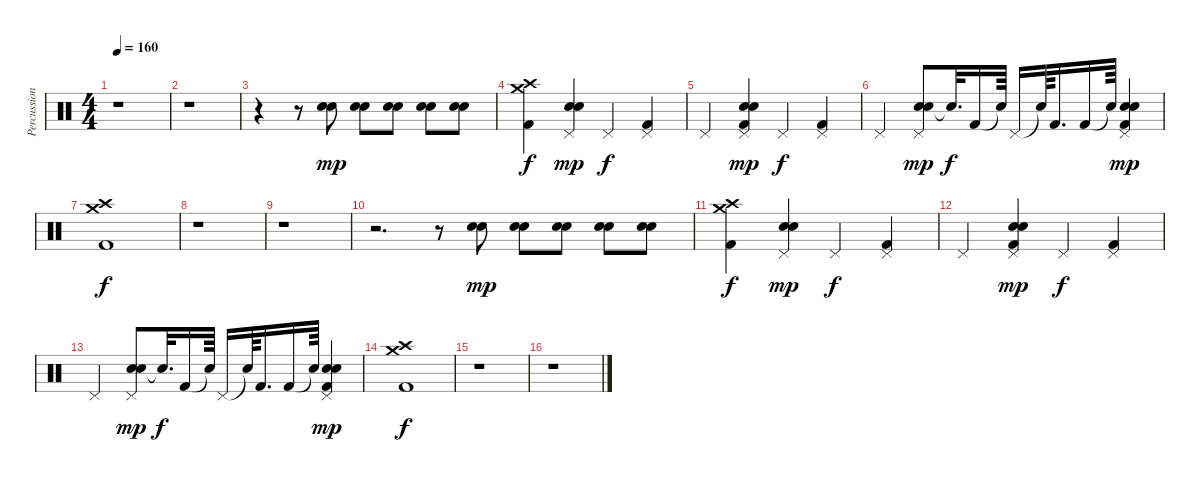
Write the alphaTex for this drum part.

\track ("Percussion" "Percussion") {instrument percussion}
\staff {score}
\articulation defaults
\ts (4 4)
\tempo 160
\clef neutral
\ks c
r.1{dy fff} |
r.1 |
r.4 r.8 ("Snare (hit) 2" "Electric Snare (hit)").8{dy mp} ("Snare (hit) 2" "Electric Snare (hit)").8 ("Snare (hit) 2" "Electric Snare (hit)").8 ("Snare (hit) 2" "Electric Snare (hit)").8 ("Snare (hit) 2" "Electric Snare (hit)").8 |
("Crash medium (hit)" "Kick (hit) 2" "Crash high (hit)").4{dy f} ("Snare (hit) 2" "Electric Snare (hit)" "Pedal Hi-Hat (hit)").4{dy mp} "Pedal Hi-Hat (hit)".4{dy f} ("Pedal Hi-Hat (hit)" "Kick (hit) 2").4 |
"Pedal Hi-Hat (hit)".4 ("Snare (hit) 2" "Pedal Hi-Hat (hit)" "Kick (hit) 2" "Electric Snare (hit)").4{dy mp} "Pedal Hi-Hat (hit)".4{dy f} ("Kick (hit) 2" "Pedal Hi-Hat (hit)").4 |
"Pedal Hi-Hat (hit)".4 ("Snare (hit) 2" "Electric Snare (hit)" "Pedal Hi-Hat (hit)").8{dy mp} "Snare (hit)"{t}.32{d dy f} "Kick (hit) 2".16 "Snare (hit)"{t}.64 "Pedal Hi-Hat (hit)".16 "Snare (hit)"{t}.64 "Kick (hit) 2".16{d} "Kick (hit) 2".16 "Snare (hit)"{t}.64 ("Snare (hit) 2" "Electric Snare (hit)" "Pedal Hi-Hat (hit)" "Kick (hit) 2").4{dy mp} |
("Kick (hit) 2" "Crash high (hit)" "Crash medium (hit)").1{dy f} |
r.1 |
r.1 |
r.2{d} r.8 ("Snare (hit) 2" "Electric Snare (hit)").8{dy mp} ("Snare (hit) 2" "Electric Snare (hit)").8 ("Snare (hit) 2" "Electric Snare (hit)").8 ("Snare (hit) 2" "Electric Snare (hit)").8 ("Snare (hit) 2" "Electric Snare (hit)").8 |
("Crash medium (hit)" "Kick (hit) 2" "Crash high (hit)").4{dy f} ("Snare (hit) 2" "Electric Snare (hit)" "Pedal Hi-Hat (hit)").4{dy mp} "Pedal Hi-Hat (hit)".4{dy f} ("Pedal Hi-Hat (hit)" "Kick (hit) 2").4 |
"Pedal Hi-Hat (hit)".4 ("Snare (hit) 2" "Pedal Hi-Hat (hit)" "Kick (hit) 2" "Electric Snare (hit)").4{dy mp} "Pedal Hi-Hat (hit)".4{dy f} ("Kick (hit) 2" "Pedal Hi-Hat (hit)").4 |
"Pedal Hi-Hat (hit)".4 ("Snare (hit) 2" "Electric Snare (hit)" "Pedal Hi-Hat (hit)").8{dy mp} "Snare (hit)"{t}.32{d dy f} "Kick (hit) 2".16 "Snare (hit)"{t}.64 "Pedal Hi-Hat (hit)".16 "Snare (hit)"{t}.64 "Kick (hit) 2".16{d} "Kick (hit) 2".16 "Snare (hit)"{t}.64 ("Snare (hit) 2" "Electric Snare (hit)" "Pedal Hi-Hat (hit)" "Kick (hit) 2").4{dy mp} |
("Kick (hit) 2" "Crash high (hit)" "Crash medium (hit)").1{dy f} |
r.1 |
r.1
